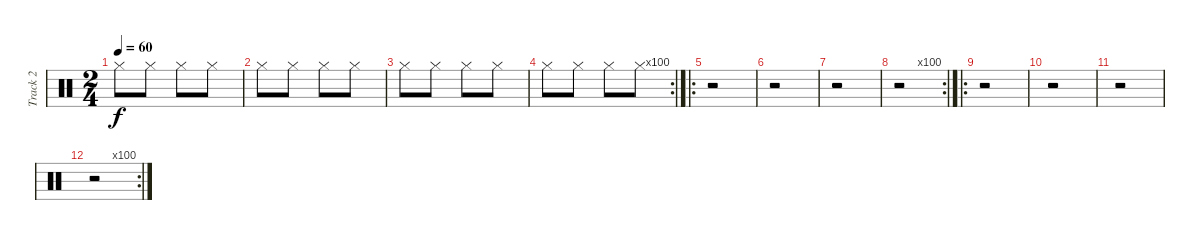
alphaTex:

\track ("Track 2" "Track 2") {instrument percussion}
\staff {score}
\articulation defaults
\ts (2 4)
\tempo 60
\clef neutral
\ks c "Hi-Hat (closed)".8{dy f} "Hi-Hat (closed)".8 "Hi-Hat (closed)".8 "Hi-Hat (closed)".8
|
"Hi-Hat (closed)".8 "Hi-Hat (closed)".8 "Hi-Hat (closed)".8 "Hi-Hat (closed)".8 |
"Hi-Hat (closed)".8 "Hi-Hat (closed)".8 "Hi-Hat (closed)".8 "Hi-Hat (closed)".8 |
\rc 100 "Hi-Hat (closed)".8 "Hi-Hat (closed)".8 "Hi-Hat (closed)".8 "Hi-Hat (closed)".8
|
\ro
r.2 |
r.2 |
r.2 |
\rc 100
r.2 |
\ro
r.2 |
r.2 |
r.2 |
\rc 100
r.2
